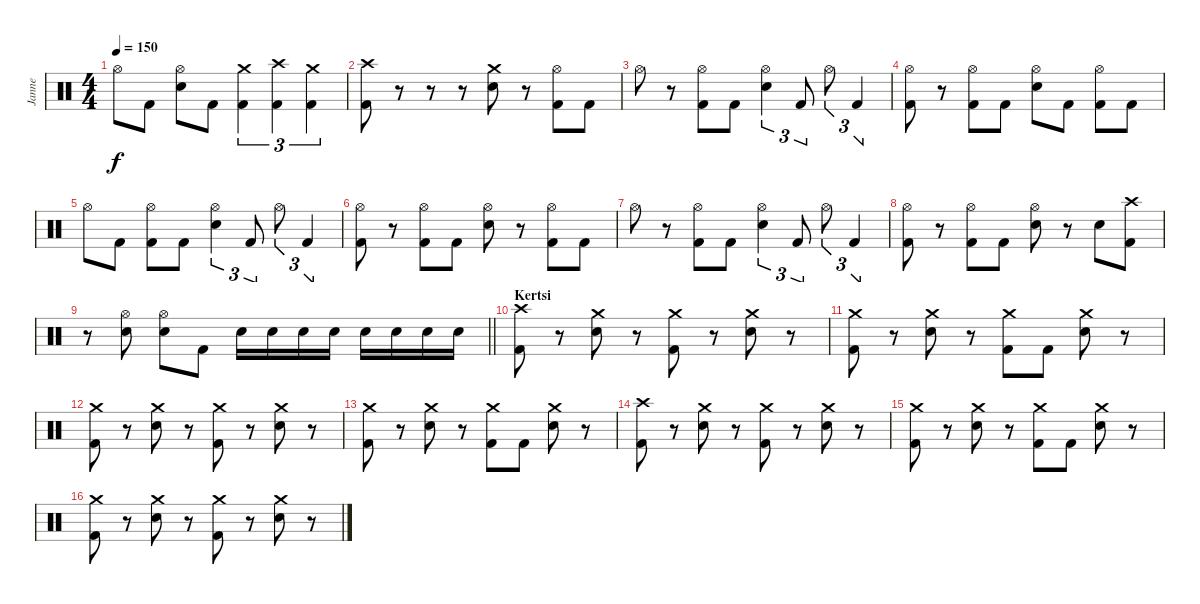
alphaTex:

\track ("Janne" "Janne") {instrument percussion}
\staff {score}
\articulation defaults
\ts (4 4)
\tempo 150
\clef neutral
\ks c "Hi-Hat (open)".8{dy f} "Kick (hit) 2".8
("Hi-Hat (open)" "Electric Snare (hit)").8 "Kick (hit) 2".8 ("Crash medium (hit)" "Kick (hit) 2").4{tu (3 2)} ("Crash high (hit)" "Kick (hit) 2").4{tu (3 2)} ("Crash medium (hit)" "Kick (hit) 2").4{tu (3 2)} |
("Crash high (hit)" "Kick (hit) 2").8 r.8 r.8 r.8 ("Crash medium (hit)" "Electric Snare (hit)").8 r.8 ("Hi-Hat (open)" "Kick (hit) 2").8 "Kick (hit) 2".8 |
"Hi-Hat (open)".8 r.8 ("Hi-Hat (open)" "Kick (hit) 2").8 "Kick (hit) 2".8 ("Hi-Hat (open)" "Electric Snare (hit)").4{tu (3 2)} "Kick (hit) 2".8{tu (3 2)} "Hi-Hat (open)".8{tu (3 2)} "Kick (hit) 2".4{tu (3 2)} |
("Hi-Hat (open)" "Kick (hit) 2").8 r.8 ("Hi-Hat (open)" "Kick (hit) 2").8 "Kick (hit) 2".8 ("Hi-Hat (open)" "Electric Snare (hit)").8 "Kick (hit) 2".8 ("Hi-Hat (open)" "Kick (hit) 2").8 "Kick (hit) 2".8 |
"Hi-Hat (open)".8 "Kick (hit) 2".8 ("Hi-Hat (open)" "Kick (hit) 2").8 "Kick (hit) 2".8 ("Hi-Hat (open)" "Electric Snare (hit)").4{tu (3 2)} "Kick (hit) 2".8{tu (3 2)} "Hi-Hat (open)".8{tu (3 2)} "Kick (hit) 2".4{tu (3 2)} |
("Hi-Hat (open)" "Kick (hit) 2").8 r.8 ("Hi-Hat (open)" "Kick (hit) 2").8 "Kick (hit) 2".8 ("Hi-Hat (open)" "Electric Snare (hit)").8 r.8 ("Hi-Hat (open)" "Kick (hit) 2").8 "Kick (hit) 2".8 |
"Hi-Hat (open)".8 r.8 ("Hi-Hat (open)" "Kick (hit) 2").8 "Kick (hit) 2".8 ("Hi-Hat (open)" "Electric Snare (hit)").4{tu (3 2)} "Kick (hit) 2".8{tu (3 2)} "Hi-Hat (open)".8{tu (3 2)} "Kick (hit) 2".4{tu (3 2)} |
("Hi-Hat (open)" "Kick (hit) 2").8 r.8 ("Hi-Hat (open)" "Kick (hit) 2").8 "Kick (hit) 2".8 ("Hi-Hat (open)" "Electric Snare (hit)").8 r.8 "Electric Snare (hit)".8 ("Crash high (hit)" "Kick (hit) 2").8 |
\barLineRight lightlight
r.8 ("Hi-Hat (open)" "Electric Snare (hit)").8 ("Hi-Hat (open)" "Electric Snare (hit)").8 "Kick (hit) 2".8 "Electric Snare (hit)".16 "Electric Snare (hit)".16 "Electric Snare (hit)".16 "Electric Snare (hit)".16 "Electric Snare (hit)".16 "Electric Snare (hit)".16 "Electric Snare (hit)".16 "Electric Snare (hit)".16 |
\section ("" "Kertsi")
("Crash high (hit)" "Kick (hit) 2").8 r.8 ("Crash medium (hit)" "Electric Snare (hit)").8 r.8 ("Crash medium (hit)" "Kick (hit) 2").8 r.8 ("Crash medium (hit)" "Electric Snare (hit)").8 r.8 |
("Crash medium (hit)" "Kick (hit) 2").8 r.8 ("Crash medium (hit)" "Electric Snare (hit)").8 r.8 ("Crash medium (hit)" "Kick (hit) 2").8 "Kick (hit) 2".8 ("Crash medium (hit)" "Electric Snare (hit)").8 r.8 |
("Crash medium (hit)" "Kick (hit) 2").8 r.8 ("Crash medium (hit)" "Electric Snare (hit)").8 r.8 ("Crash medium (hit)" "Kick (hit) 2").8 r.8 ("Crash medium (hit)" "Electric Snare (hit)").8 r.8 |
("Crash medium (hit)" "Kick (hit) 2").8 r.8 ("Crash medium (hit)" "Electric Snare (hit)").8 r.8 ("Crash medium (hit)" "Kick (hit) 2").8 "Kick (hit) 2".8 ("Crash medium (hit)" "Electric Snare (hit)").8 r.8 |
("Crash high (hit)" "Kick (hit) 2").8 r.8 ("Crash medium (hit)" "Electric Snare (hit)").8 r.8 ("Crash medium (hit)" "Kick (hit) 2").8 r.8 ("Crash medium (hit)" "Electric Snare (hit)").8 r.8 |
("Crash medium (hit)" "Kick (hit) 2").8 r.8 ("Crash medium (hit)" "Electric Snare (hit)").8 r.8 ("Crash medium (hit)" "Kick (hit) 2").8 "Kick (hit) 2".8 ("Crash medium (hit)" "Electric Snare (hit)").8 r.8 |
("Crash medium (hit)" "Kick (hit) 2").8 r.8 ("Crash medium (hit)" "Electric Snare (hit)").8 r.8 ("Crash medium (hit)" "Kick (hit) 2").8 r.8 ("Crash medium (hit)" "Electric Snare (hit)").8 r.8
